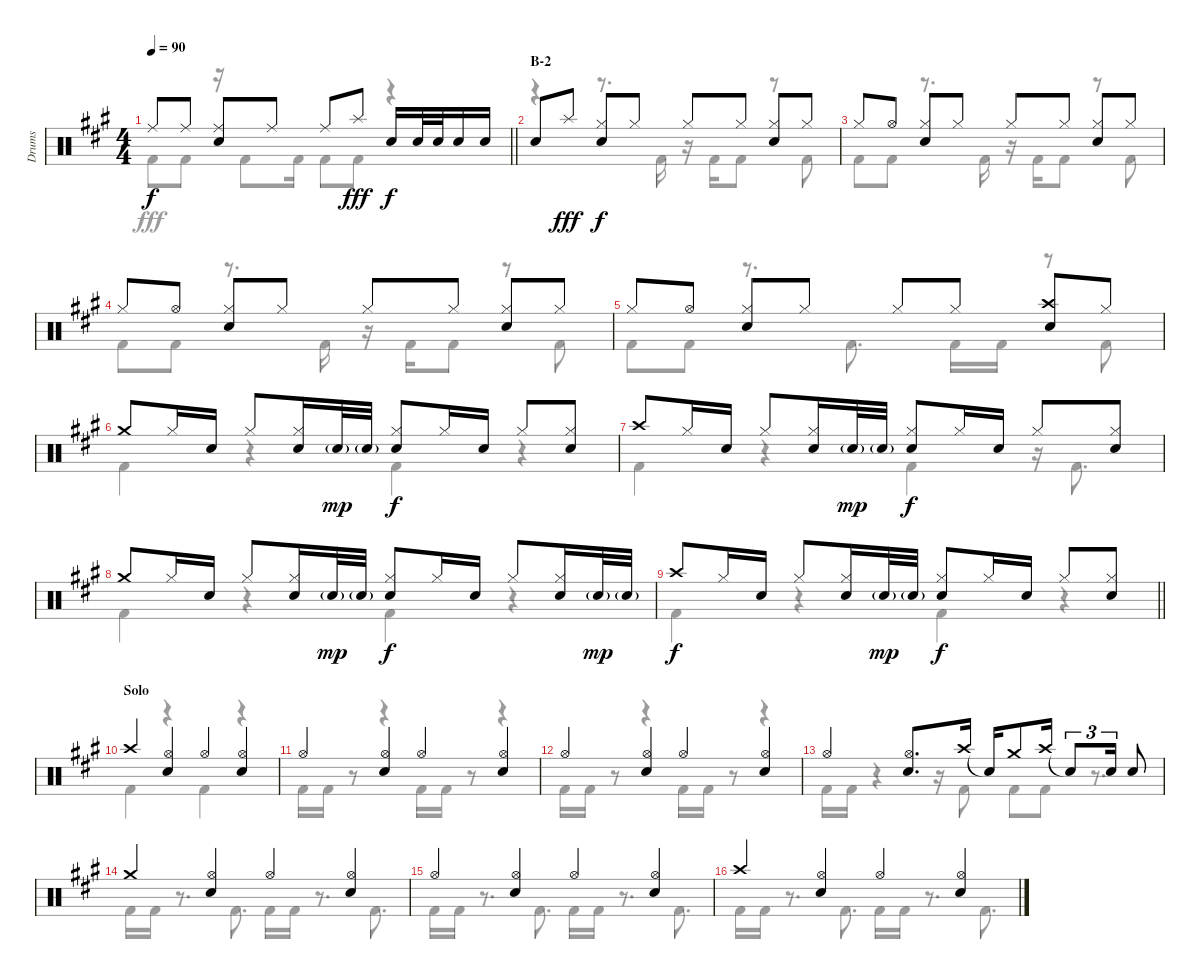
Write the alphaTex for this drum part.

\track ("Drums" "Drums") {instrument percussion}
\staff {score}
\articulation defaults
\voice
\ts (4 4)
\tempo 90
\clef neutral
\barLineRight lightlight
\ks a "Ride (middle)".8{dy f} "Ride (middle)".8
("Ride (middle)" "Snare (hit) 2").8 "Ride (middle)".8 "Ride (middle)".8 "Splash (hit)".8{dy fff} "Snare (hit) 2".16{dy f} "Snare (hit) 2".32 "Snare (hit) 2".32 "Snare (hit) 2".16 "Snare (hit) 2".16 |
\section ("" "B-2")
"Snare (hit) 2".8 "Splash (hit)".8{dy fff} ("Hi-Hat (closed)" "Snare (hit) 2").8{dy f} "Hi-Hat (closed)".8 "Hi-Hat (closed)".8 "Hi-Hat (closed)".8 ("Hi-Hat (closed)" "Snare (hit) 2").8 "Hi-Hat (closed)".8 |
"Hi-Hat (closed)".8 "Hi-Hat (open)".8 ("Hi-Hat (closed)" "Snare (hit) 2").8 "Hi-Hat (closed)".8 "Hi-Hat (closed)".8 "Hi-Hat (closed)".8 ("Hi-Hat (closed)" "Snare (hit) 2").8 "Hi-Hat (closed)".8 |
"Hi-Hat (closed)".8 "Hi-Hat (open)".8 ("Hi-Hat (closed)" "Snare (hit) 2").8 "Hi-Hat (closed)".8 "Hi-Hat (closed)".8 "Hi-Hat (closed)".8 ("Hi-Hat (closed)" "Snare (hit) 2").8 "Hi-Hat (closed)".8 |
"Hi-Hat (closed)".8 "Hi-Hat (open)".8 ("Hi-Hat (closed)" "Snare (hit) 2").8 "Hi-Hat (closed)".8 "Hi-Hat (closed)".8 "Hi-Hat (closed)".8 ("Crash high (hit)" "Snare (hit) 2").8 "Hi-Hat (closed)".8 |
"Crash medium (hit)".8 "Hi-Hat (closed)".16 "Snare (hit) 2".16 "Hi-Hat (closed)".8 ("Hi-Hat (closed)" "Snare (hit) 2").16 "Snare (hit) 2"{g}.32{dy mp} "Snare (hit) 2"{g}.32 ("Hi-Hat (closed)" "Snare (hit) 2").8{dy f} "Hi-Hat (closed)".16 "Snare (hit) 2".16 "Hi-Hat (closed)".8 ("Hi-Hat (closed)" "Snare (hit) 2").8 |
"Crash high (hit)".8 "Hi-Hat (closed)".16 "Snare (hit) 2".16 "Hi-Hat (closed)".8 ("Hi-Hat (closed)" "Snare (hit) 2").16 "Snare (hit) 2"{g}.32{dy mp} "Snare (hit) 2"{g}.32 ("Hi-Hat (closed)" "Snare (hit) 2").8{dy f} "Hi-Hat (closed)".16 "Snare (hit) 2".16 "Hi-Hat (closed)".8 ("Hi-Hat (closed)" "Snare (hit) 2").8 |
"Crash medium (hit)".8 "Hi-Hat (closed)".16 "Snare (hit) 2".16 "Hi-Hat (closed)".8 ("Hi-Hat (closed)" "Snare (hit) 2").16 "Snare (hit) 2"{g}.32{dy mp} "Snare (hit) 2"{g}.32 ("Hi-Hat (closed)" "Snare (hit) 2").8{dy f} "Hi-Hat (closed)".16 "Snare (hit) 2".16 "Hi-Hat (closed)".8 ("Hi-Hat (closed)" "Snare (hit) 2").16 "Snare (hit) 2"{g}.32{dy mp} "Snare (hit) 2"{g}.32 |
\barLineRight lightlight "Crash high (hit)".8{dy f} "Hi-Hat (closed)".16 "Snare (hit) 2".16 "Hi-Hat (closed)".8
("Hi-Hat (closed)" "Snare (hit) 2").16 "Snare (hit) 2"{g}.32{dy mp} "Snare (hit) 2"{g}.32 ("Hi-Hat (closed)" "Snare (hit) 2").8{dy f} "Hi-Hat (closed)".16 "Snare (hit) 2".16 "Hi-Hat (closed)".8 ("Hi-Hat (closed)" "Snare (hit) 2").8 |
\section ("" "Solo")
"Crash high (hit)".4 ("Hi-Hat (open)" "Snare (hit) 2").4 "Hi-Hat (open)".4 ("Hi-Hat (open)" "Snare (hit) 2").4 |
"Hi-Hat (open)".4 ("Hi-Hat (open)" "Snare (hit) 2").4 "Hi-Hat (open)".4 ("Hi-Hat (open)" "Snare (hit) 2").4 |
"Hi-Hat (open)".4 ("Hi-Hat (open)" "Snare (hit) 2").4 "Hi-Hat (open)".4 ("Hi-Hat (open)" "Snare (hit) 2").4 |
"Hi-Hat (open)".4 ("Hi-Hat (open)" "Snare (hit) 2").8{d} "Crash high (hit)".16 "Snare (hit)"{t}.16 "Crash medium (hit)".8 "Crash high (hit)".16 "Snare (hit)"{t}.8{tu (3 2)} "Snare (hit) 2".16{tu (3 2)} "Snare (hit) 2".8 |
"Crash medium (hit)".4 ("Hi-Hat (open)" "Snare (hit) 2").4 "Hi-Hat (open)".4 ("Hi-Hat (open)" "Snare (hit) 2").4 |
"Hi-Hat (open)".4 ("Hi-Hat (open)" "Snare (hit) 2").4 "Hi-Hat (open)".4 ("Hi-Hat (open)" "Snare (hit) 2").4 |
"Crash high (hit)".4 ("Hi-Hat (open)" "Snare (hit) 2").4 "Hi-Hat (open)".4 ("Hi-Hat (open)" "Snare (hit) 2").4
\voice
\clef neutral
\ottava regular
\simile none
\barLineRight lightlight
\ks a "Kick (hit) 2".8{dy fff} "Kick (hit) 2".8
r.16 "Kick (hit) 2".8 "Kick (hit) 2".16 "Kick (hit) 2".8 "Kick (hit) 2".8 r.4 |
r.4 r.8{d} "Kick (hit) 2".16 r.16 "Kick (hit) 2".16 "Kick (hit) 2".8 r.8 "Kick (hit) 2".8 |
"Kick (hit) 2".8 "Kick (hit) 2".8 r.8{d} "Kick (hit) 2".16 r.16 "Kick (hit) 2".16 "Kick (hit) 2".8 r.8 "Kick (hit) 2".8 |
"Kick (hit) 2".8 "Kick (hit) 2".8 r.8{d} "Kick (hit) 2".16 r.16 "Kick (hit) 2".16 "Kick (hit) 2".8 r.8 "Kick (hit) 2".8 |
"Kick (hit) 2".8 "Kick (hit) 2".8 r.8{d} "Kick (hit) 2".8{d} "Kick (hit) 2".16 "Kick (hit) 2".16 r.8 "Kick (hit) 2".8 |
"Kick (hit) 2".4 r.4 "Kick (hit) 2".4 r.4 |
"Kick (hit) 2".4 r.4 "Kick (hit) 2".4 r.16 "Kick (hit) 2".8{d} |
"Kick (hit) 2".4 r.4 "Kick (hit) 2".4 r.4 |
\barLineRight lightlight "Kick (hit) 2".4
r.4 "Kick (hit) 2".4 r.4 |
"Kick (hit) 2".4 r.4 "Kick (hit) 2".4 r.4 |
"Kick (hit) 2".16 "Kick (hit) 2".16 r.8 r.4 "Kick (hit) 2".16 "Kick (hit) 2".16 r.8 r.4 |
"Kick (hit) 2".16 "Kick (hit) 2".16 r.8 r.4 "Kick (hit) 2".16 "Kick (hit) 2".16 r.8 r.4 |
"Kick (hit) 2".16 "Kick (hit) 2".16 r.4 r.16 "Kick (hit) 2".8 "Kick (hit) 2".8 "Kick (hit) 2".8 r.8{d} |
"Kick (hit) 2".16 "Kick (hit) 2".16 r.8{d} "Kick (hit) 2".8{d} "Kick (hit) 2".16 "Kick (hit) 2".16 r.8{d} "Kick (hit) 2".8{d} |
"Kick (hit) 2".16 "Kick (hit) 2".16 r.8{d} "Kick (hit) 2".8{d} "Kick (hit) 2".16 "Kick (hit) 2".16 r.8{d} "Kick (hit) 2".8{d} |
"Kick (hit) 2".16 "Kick (hit) 2".16 r.8{d} "Kick (hit) 2".8{d} "Kick (hit) 2".16 "Kick (hit) 2".16 r.8{d} "Kick (hit) 2".8{d}
